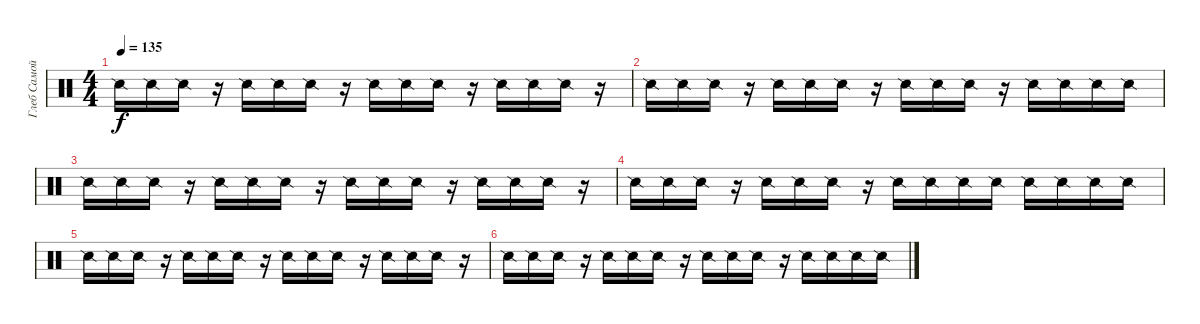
\track ("Глеб Самойлов (fx)" "Глеб Самой") {instrument percussion}
\staff {score}
\articulation defaults
\ts (4 4)
\tempo 135
\clef neutral
\ks c "Snare (side stick) 2".16{dy f} "Snare (side stick) 2".16 "Snare (side stick) 2".16
r.16 "Snare (side stick) 2".16 "Snare (side stick) 2".16 "Snare (side stick) 2".16 r.16 "Snare (side stick) 2".16 "Snare (side stick) 2".16 "Snare (side stick) 2".16 r.16 "Snare (side stick) 2".16 "Snare (side stick) 2".16 "Snare (side stick) 2".16 r.16 |
"Snare (side stick) 2".16 "Snare (side stick) 2".16 "Snare (side stick) 2".16 r.16 "Snare (side stick) 2".16 "Snare (side stick) 2".16 "Snare (side stick) 2".16 r.16 "Snare (side stick) 2".16 "Snare (side stick) 2".16 "Snare (side stick) 2".16 r.16 "Snare (side stick) 2".16 "Snare (side stick) 2".16 "Snare (side stick) 2".16 "Snare (side stick) 2".16 |
"Snare (side stick) 2".16 "Snare (side stick) 2".16 "Snare (side stick) 2".16 r.16 "Snare (side stick) 2".16 "Snare (side stick) 2".16 "Snare (side stick) 2".16 r.16 "Snare (side stick) 2".16 "Snare (side stick) 2".16 "Snare (side stick) 2".16 r.16 "Snare (side stick) 2".16 "Snare (side stick) 2".16 "Snare (side stick) 2".16 r.16 |
"Snare (side stick) 2".16 "Snare (side stick) 2".16 "Snare (side stick) 2".16 r.16 "Snare (side stick) 2".16 "Snare (side stick) 2".16 "Snare (side stick) 2".16 r.16 "Snare (side stick) 2".16 "Snare (side stick) 2".16 "Snare (side stick) 2".16 "Snare (side stick) 2".16 "Snare (side stick) 2".16 "Snare (side stick) 2".16 "Snare (side stick) 2".16 "Snare (side stick) 2".16 |
"Snare (side stick) 2".16 "Snare (side stick) 2".16 "Snare (side stick) 2".16 r.16 "Snare (side stick) 2".16 "Snare (side stick) 2".16 "Snare (side stick) 2".16 r.16 "Snare (side stick) 2".16 "Snare (side stick) 2".16 "Snare (side stick) 2".16 r.16 "Snare (side stick) 2".16 "Snare (side stick) 2".16 "Snare (side stick) 2".16 r.16 |
"Snare (side stick) 2".16 "Snare (side stick) 2".16 "Snare (side stick) 2".16 r.16 "Snare (side stick) 2".16 "Snare (side stick) 2".16 "Snare (side stick) 2".16 r.16 "Snare (side stick) 2".16 "Snare (side stick) 2".16 "Snare (side stick) 2".16 r.16 "Snare (side stick) 2".16 "Snare (side stick) 2".16 "Snare (side stick) 2".16 "Snare (side stick) 2".16
